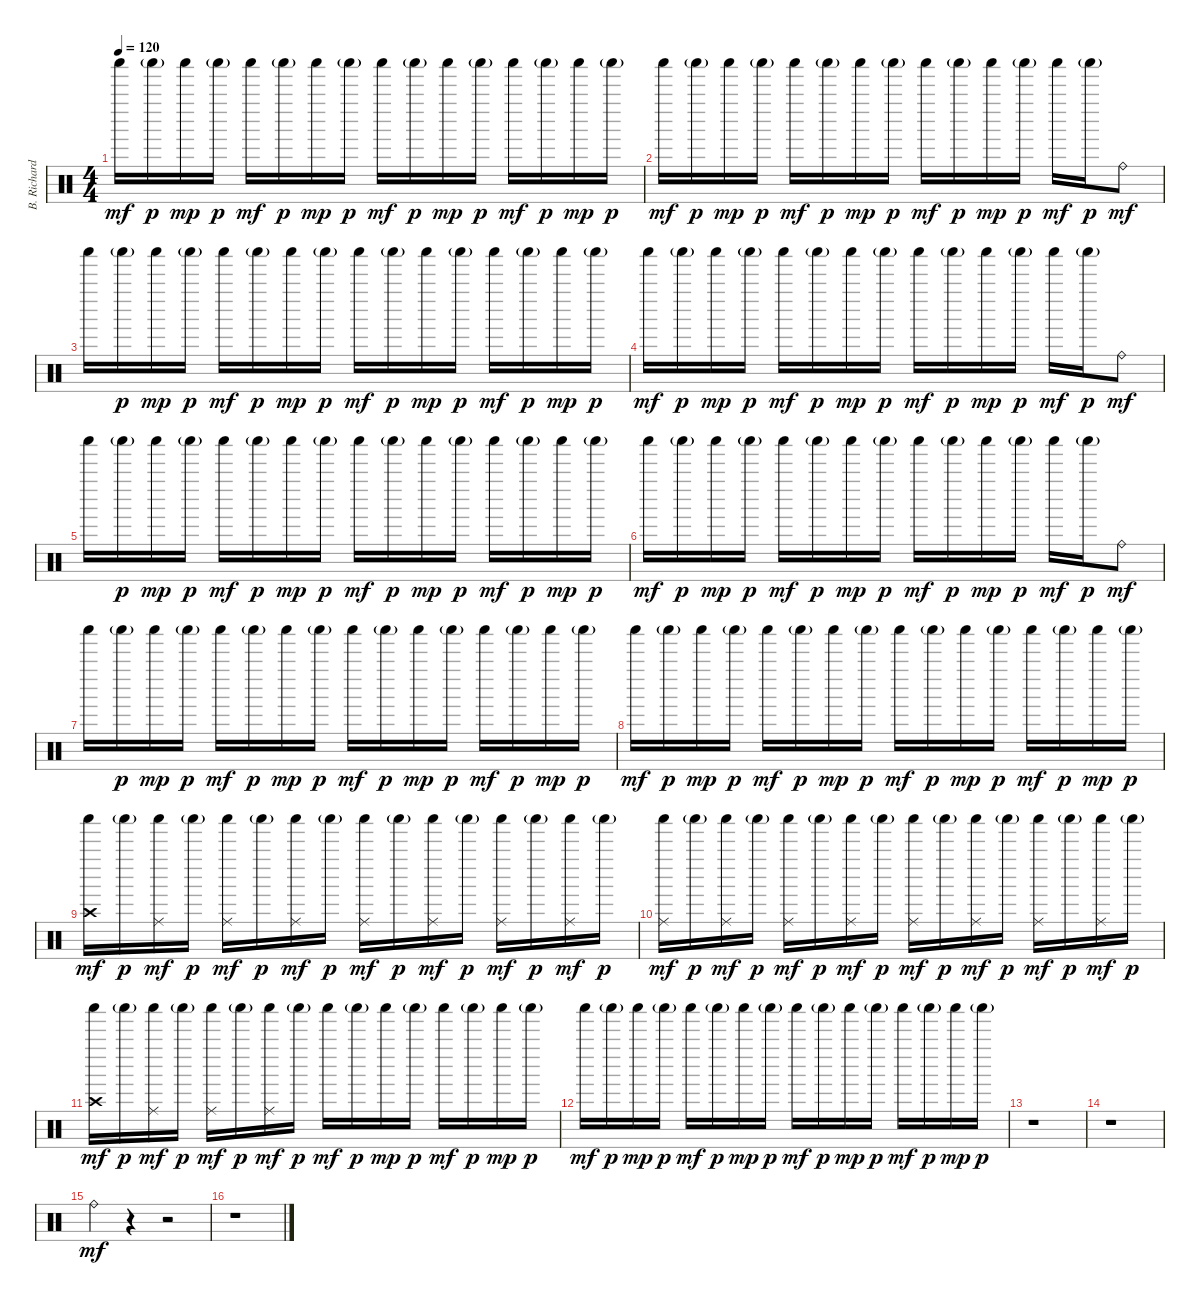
\track ("B. Richardson Drums" "B. Richard") {instrument percussion}
\staff {score}
\articulation defaults
\ts (4 4)
\tempo 120
\clef neutral
\ks c "Shaker (hit)".16{dy mf} "Shaker (hit)"{g}.16{dy p} "Shaker (hit)".16{dy mp} "Shaker (hit)"{g}.16{dy p} "Shaker (hit)".16{dy mf} "Shaker (hit)"{g}.16{dy p} "Shaker (hit)".16{dy mp} "Shaker (hit)"{g}.16{dy p} "Shaker (hit)".16{dy mf} "Shaker (hit)"{g}.16{dy p} "Shaker (hit)".16{dy mp} "Shaker (hit)"{g}.16{dy p} "Shaker (hit)".16{dy mf} "Shaker (hit)"{g}.16{dy p} "Shaker (hit)".16{dy mp} "Shaker (hit)"{g}.16{dy p}
|
"Shaker (hit)".16{dy mf} "Shaker (hit)"{g}.16{dy p} "Shaker (hit)".16{dy mp} "Shaker (hit)"{g}.16{dy p} "Shaker (hit)".16{dy mf} "Shaker (hit)"{g}.16{dy p} "Shaker (hit)".16{dy mp} "Shaker (hit)"{g}.16{dy p} "Shaker (hit)".16{dy mf} "Shaker (hit)"{g}.16{dy p} "Shaker (hit)".16{dy mp} "Shaker (hit)"{g}.16{dy p} "Shaker (hit)".16{dy mf} "Shaker (hit)"{g}.16{dy p} "Ride (bell)".8{dy mf} |
"Shaker (hit)".16 "Shaker (hit)"{g}.16{dy p} "Shaker (hit)".16{dy mp} "Shaker (hit)"{g}.16{dy p} "Shaker (hit)".16{dy mf} "Shaker (hit)"{g}.16{dy p} "Shaker (hit)".16{dy mp} "Shaker (hit)"{g}.16{dy p} "Shaker (hit)".16{dy mf} "Shaker (hit)"{g}.16{dy p} "Shaker (hit)".16{dy mp} "Shaker (hit)"{g}.16{dy p} "Shaker (hit)".16{dy mf} "Shaker (hit)"{g}.16{dy p} "Shaker (hit)".16{dy mp} "Shaker (hit)"{g}.16{dy p} |
"Shaker (hit)".16{dy mf} "Shaker (hit)"{g}.16{dy p} "Shaker (hit)".16{dy mp} "Shaker (hit)"{g}.16{dy p} "Shaker (hit)".16{dy mf} "Shaker (hit)"{g}.16{dy p} "Shaker (hit)".16{dy mp} "Shaker (hit)"{g}.16{dy p} "Shaker (hit)".16{dy mf} "Shaker (hit)"{g}.16{dy p} "Shaker (hit)".16{dy mp} "Shaker (hit)"{g}.16{dy p} "Shaker (hit)".16{dy mf} "Shaker (hit)"{g}.16{dy p} "Ride (bell)".8{dy mf} |
"Shaker (hit)".16 "Shaker (hit)"{g}.16{dy p} "Shaker (hit)".16{dy mp} "Shaker (hit)"{g}.16{dy p} "Shaker (hit)".16{dy mf} "Shaker (hit)"{g}.16{dy p} "Shaker (hit)".16{dy mp} "Shaker (hit)"{g}.16{dy p} "Shaker (hit)".16{dy mf} "Shaker (hit)"{g}.16{dy p} "Shaker (hit)".16{dy mp} "Shaker (hit)"{g}.16{dy p} "Shaker (hit)".16{dy mf} "Shaker (hit)"{g}.16{dy p} "Shaker (hit)".16{dy mp} "Shaker (hit)"{g}.16{dy p} |
"Shaker (hit)".16{dy mf} "Shaker (hit)"{g}.16{dy p} "Shaker (hit)".16{dy mp} "Shaker (hit)"{g}.16{dy p} "Shaker (hit)".16{dy mf} "Shaker (hit)"{g}.16{dy p} "Shaker (hit)".16{dy mp} "Shaker (hit)"{g}.16{dy p} "Shaker (hit)".16{dy mf} "Shaker (hit)"{g}.16{dy p} "Shaker (hit)".16{dy mp} "Shaker (hit)"{g}.16{dy p} "Shaker (hit)".16{dy mf} "Shaker (hit)"{g}.16{dy p} "Ride (bell)".8{dy mf} |
"Shaker (hit)".16 "Shaker (hit)"{g}.16{dy p} "Shaker (hit)".16{dy mp} "Shaker (hit)"{g}.16{dy p} "Shaker (hit)".16{dy mf} "Shaker (hit)"{g}.16{dy p} "Shaker (hit)".16{dy mp} "Shaker (hit)"{g}.16{dy p} "Shaker (hit)".16{dy mf} "Shaker (hit)"{g}.16{dy p} "Shaker (hit)".16{dy mp} "Shaker (hit)"{g}.16{dy p} "Shaker (hit)".16{dy mf} "Shaker (hit)"{g}.16{dy p} "Shaker (hit)".16{dy mp} "Shaker (hit)"{g}.16{dy p} |
"Shaker (hit)".16{dy mf} "Shaker (hit)"{g}.16{dy p} "Shaker (hit)".16{dy mp} "Shaker (hit)"{g}.16{dy p} "Shaker (hit)".16{dy mf} "Shaker (hit)"{g}.16{dy p} "Shaker (hit)".16{dy mp} "Shaker (hit)"{g}.16{dy p} "Shaker (hit)".16{dy mf} "Shaker (hit)"{g}.16{dy p} "Shaker (hit)".16{dy mp} "Shaker (hit)"{g}.16{dy p} "Shaker (hit)".16{dy mf} "Shaker (hit)"{g}.16{dy p} "Shaker (hit)".16{dy mp} "Shaker (hit)"{g}.16{dy p} |
("Shaker (hit)" "Crash high (hit)").16{dy mf} "Shaker (hit)"{g}.16{dy p} ("Shaker (hit)" "Ride (middle)").16{dy mf} "Shaker (hit)"{g}.16{dy p} ("Shaker (hit)" "Ride (middle)").16{dy mf} "Shaker (hit)"{g}.16{dy p} ("Shaker (hit)" "Ride (middle)").16{dy mf} "Shaker (hit)"{g}.16{dy p} ("Shaker (hit)" "Ride (middle)").16{dy mf} "Shaker (hit)"{g}.16{dy p} ("Shaker (hit)" "Ride (middle)").16{dy mf} "Shaker (hit)"{g}.16{dy p} ("Shaker (hit)" "Ride (middle)").16{dy mf} "Shaker (hit)"{g}.16{dy p} ("Shaker (hit)" "Ride (middle)").16{dy mf} "Shaker (hit)"{g}.16{dy p} |
("Shaker (hit)" "Ride (middle)").16{dy mf} "Shaker (hit)"{g}.16{dy p} ("Shaker (hit)" "Ride (middle)").16{dy mf} "Shaker (hit)"{g}.16{dy p} ("Shaker (hit)" "Ride (middle)").16{dy mf} "Shaker (hit)"{g}.16{dy p} ("Shaker (hit)" "Ride (middle)").16{dy mf} "Shaker (hit)"{g}.16{dy p} ("Shaker (hit)" "Ride (middle)").16{dy mf} "Shaker (hit)"{g}.16{dy p} ("Shaker (hit)" "Ride (middle)").16{dy mf} "Shaker (hit)"{g}.16{dy p} ("Shaker (hit)" "Ride (middle)").16{dy mf} "Shaker (hit)"{g}.16{dy p} ("Shaker (hit)" "Ride (middle)").16{dy mf} "Shaker (hit)"{g}.16{dy p} |
("Shaker (hit)" "Crash high (hit)").16{dy mf} "Shaker (hit)"{g}.16{dy p} ("Shaker (hit)" "Ride (middle)").16{dy mf} "Shaker (hit)"{g}.16{dy p} ("Shaker (hit)" "Ride (middle)").16{dy mf} "Shaker (hit)"{g}.16{dy p} ("Shaker (hit)" "Ride (middle)").16{dy mf} "Shaker (hit)"{g}.16{dy p} "Shaker (hit)".16{dy mf} "Shaker (hit)"{g}.16{dy p} "Shaker (hit)".16{dy mp} "Shaker (hit)"{g}.16{dy p} "Shaker (hit)".16{dy mf} "Shaker (hit)"{g}.16{dy p} "Shaker (hit)".16{dy mp} "Shaker (hit)"{g}.16{dy p} |
"Shaker (hit)".16{dy mf} "Shaker (hit)"{g}.16{dy p} "Shaker (hit)".16{dy mp} "Shaker (hit)"{g}.16{dy p} "Shaker (hit)".16{dy mf} "Shaker (hit)"{g}.16{dy p} "Shaker (hit)".16{dy mp} "Shaker (hit)"{g}.16{dy p} "Shaker (hit)".16{dy mf} "Shaker (hit)"{g}.16{dy p} "Shaker (hit)".16{dy mp} "Shaker (hit)"{g}.16{dy p} "Shaker (hit)".16{dy mf} "Shaker (hit)"{g}.16{dy p} "Shaker (hit)".16{dy mp} "Shaker (hit)"{g}.16{dy p} |
r.1 |
r.1 |
"Ride (bell)".4{dy mf} r.4 r.2 |
r.1{volume 0}
